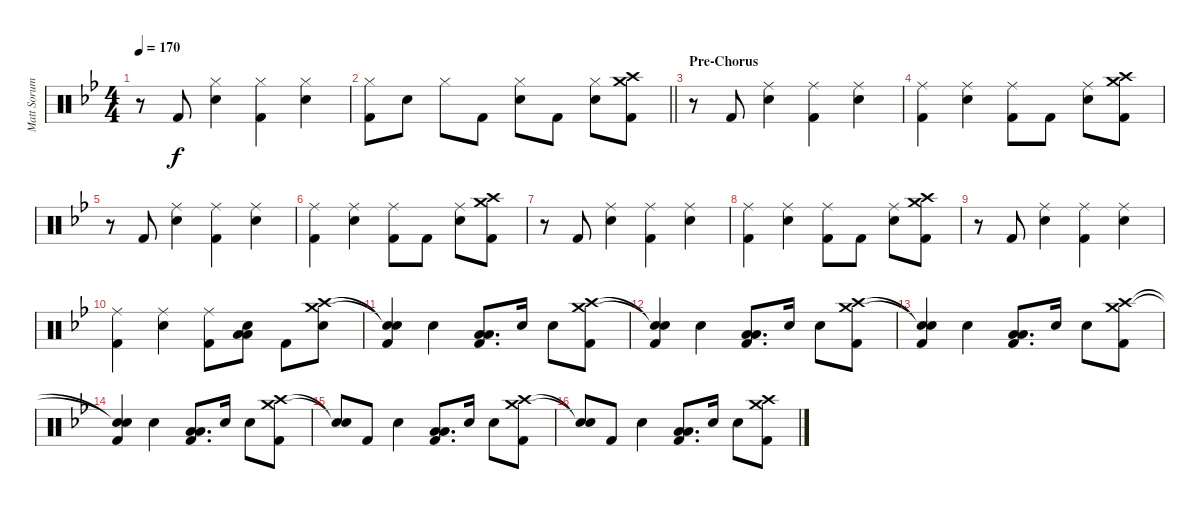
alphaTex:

\track ("Matt Sorum - Drums" "Matt Sorum") {instrument percussion}
\staff {score}
\articulation defaults
\ts (4 4)
\tempo 170
\clef neutral
\ks bb
r.8{dy f} "Kick (hit) 2".8 ("Hi-Hat (closed)" "Snare (hit) 2").4 ("Hi-Hat (closed)" "Kick (hit) 2").4 ("Hi-Hat (closed)" "Snare (hit) 2").4 |
\barLineRight lightlight
("Hi-Hat (closed)" "Kick (hit) 2").8 "Snare (hit) 2".8 "Hi-Hat (closed)".8 "Kick (hit) 2".8 ("Hi-Hat (closed)" "Snare (hit) 2").8 "Kick (hit) 2".8 ("Hi-Hat (closed)" "Snare (hit) 2").8 ("Crash medium (hit)" "Crash high (hit)" "Kick (hit) 2").8 |
\section ("" "Pre-Chorus")
r.8 "Kick (hit) 2".8 ("Ride (middle)" "Snare (hit) 2").4 ("Ride (middle)" "Kick (hit) 2").4 ("Ride (middle)" "Snare (hit) 2").4 |
("Ride (middle)" "Kick (hit) 2").4 ("Ride (middle)" "Snare (hit) 2").4 ("Ride (middle)" "Kick (hit) 2").8 "Kick (hit) 2".8 ("Ride (middle)" "Snare (hit) 2").8 ("Crash medium (hit)" "Crash high (hit)" "Kick (hit) 2").8 |
r.8 "Kick (hit) 2".8 ("Ride (middle)" "Snare (hit) 2").4 ("Ride (middle)" "Kick (hit) 2").4 ("Ride (middle)" "Snare (hit) 2").4 |
("Ride (middle)" "Kick (hit) 2").4 ("Ride (middle)" "Snare (hit) 2").4 ("Ride (middle)" "Kick (hit) 2").8 "Kick (hit) 2".8 ("Ride (middle)" "Snare (hit) 2").8 ("Crash medium (hit)" "Crash high (hit)" "Kick (hit) 2").8 |
r.8 "Kick (hit) 2".8 ("Ride (middle)" "Snare (hit) 2").4 ("Ride (middle)" "Kick (hit) 2").4 ("Ride (middle)" "Snare (hit) 2").4 |
("Ride (middle)" "Kick (hit) 2").4 ("Ride (middle)" "Snare (hit) 2").4 ("Ride (middle)" "Kick (hit) 2").8 "Kick (hit) 2".8 ("Ride (middle)" "Snare (hit) 2").8 ("Crash medium (hit)" "Crash high (hit)" "Kick (hit) 2").8 |
r.8 "Kick (hit) 2".8 ("Ride (middle)" "Snare (hit) 2").4 ("Ride (middle)" "Kick (hit) 2").4 ("Ride (middle)" "Snare (hit) 2").4 |
("Ride (middle)" "Kick (hit) 2").4 ("Ride (middle)" "Snare (hit) 2").4 ("Ride (middle)" "Kick (hit) 2").8 ("Low Tom (hit)" "Low Tom (hit)" "Snare (hit) 2").8 "Kick (hit) 2".8 ("Crash medium (hit)" "Crash high (hit)" "Snare (hit) 2").8 |
("Snare (hit)"{t} "Snare (hit)"{t} "Kick (hit) 2").4 "Snare (hit) 2".4 ("Low Tom (hit)" "Low Tom (hit)" "Kick (hit) 2").8{d} "Snare (hit) 2".16 "Snare (hit) 2".8 ("Crash medium (hit)" "Crash high (hit)" "Kick (hit) 2").8 |
("Snare (hit)"{t} "Snare (hit)"{t} "Kick (hit) 2").4 "Snare (hit) 2".4 ("Low Tom (hit)" "Low Tom (hit)" "Kick (hit) 2").8{d} "Snare (hit) 2".16 "Snare (hit) 2".8 ("Crash medium (hit)" "Crash high (hit)" "Kick (hit) 2").8 |
("Snare (hit)"{t} "Snare (hit)"{t} "Kick (hit) 2").4 "Snare (hit) 2".4 ("Low Tom (hit)" "Low Tom (hit)" "Kick (hit) 2").8{d} "Snare (hit) 2".16 "Snare (hit) 2".8 ("Crash medium (hit)" "Crash high (hit)" "Kick (hit) 2").8 |
("Snare (hit)"{t} "Snare (hit)"{t} "Kick (hit) 2").4 "Snare (hit) 2".4 ("Low Tom (hit)" "Low Tom (hit)" "Kick (hit) 2").8{d} "Snare (hit) 2".16 "Snare (hit) 2".8 ("Crash medium (hit)" "Crash high (hit)" "Kick (hit) 2").8 |
("Snare (hit)"{t} "Snare (hit)"{t}).8 "Kick (hit) 2".8 "Snare (hit) 2".4 ("Low Tom (hit)" "Low Tom (hit)" "Kick (hit) 2").8{d} "Snare (hit) 2".16 "Snare (hit) 2".8 ("Crash medium (hit)" "Crash high (hit)" "Kick (hit) 2").8 |
("Snare (hit)"{t} "Snare (hit)"{t}).8 "Kick (hit) 2".8 "Snare (hit) 2".4 ("Low Tom (hit)" "Low Tom (hit)" "Kick (hit) 2").8{d} "Snare (hit) 2".16 "Snare (hit) 2".8 ("Crash medium (hit)" "Crash high (hit)" "Kick (hit) 2").8
